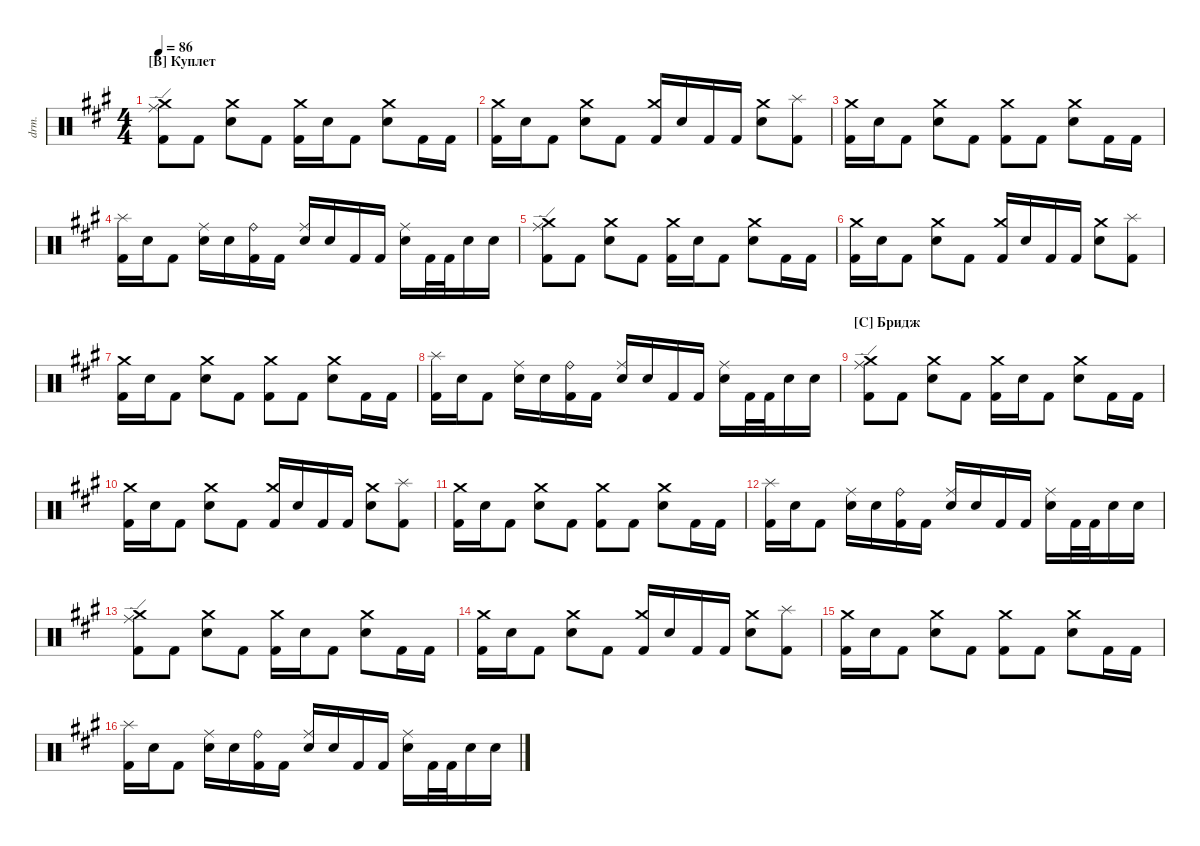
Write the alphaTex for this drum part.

\defaultSystemsLayout 4
\hideDynamics
\bracketExtendMode nobrackets
\track ("Drumkit" "drm.") {instrument percussion}
\staff {score}
\articulation defaults
\ts (4 4)
\section ("B" "Куплет")
\tempo 86
\clef neutral
\ks f#minor
("Kick (hit) 2"{acc forcenatural} "Crash medium (hit)"{acc forcenatural} "Ride (edge)"{acc forcenatural}).8{dy mf beam Down} "Kick (hit) 2"{acc forcenatural}.8{beam Down} ("Snare (hit) 2"{acc forcenatural} "Crash medium (hit)"{acc forcenatural}).8{beam Down} "Kick (hit) 2"{acc forcenatural}.8{beam Down} ("Kick (hit) 2"{acc forcenatural} "Crash medium (hit)"{acc forcenatural}).16{beam Down} "Snare (hit) 2"{acc forcenatural}.16{beam Down} "Kick (hit) 2"{acc forcenatural}.8{beam Down} ("Snare (hit) 2"{acc forcenatural} "Crash medium (hit)"{acc forcenatural}).8{beam Down} "Kick (hit) 2"{acc forcenatural}.16{beam Down} "Kick (hit) 2"{acc forcenatural}.16{beam Down} |
("Kick (hit) 2"{acc forcenatural} "Crash medium (hit)"{acc forcenatural}).16{beam Down} "Snare (hit) 2"{acc forcenatural}.16{beam Down} "Kick (hit) 2"{acc forcenatural}.8{beam Down} ("Snare (hit) 2"{acc forcenatural} "Crash medium (hit)"{acc forcenatural}).8{beam Down} "Kick (hit) 2"{acc forcenatural}.8{beam Down} ("Kick (hit) 2"{acc forcenatural} "Crash medium (hit)"{acc forcenatural}).16{beam Up} "Snare (hit) 2"{acc forcenatural}.16{beam Up} "Kick (hit) 2"{acc forcenatural}.16{beam Up} "Kick (hit) 2"{acc forcenatural}.16{beam Up} ("Snare (hit) 2"{acc forcenatural} "Crash medium (hit)"{acc forcenatural}).8{beam Down} ("Kick (hit) 2"{acc forcenatural} "Splash (hit)"{acc forcenatural}).8{beam Down} |
("Kick (hit) 2"{acc forcenatural} "Crash medium (hit)"{acc forcenatural}).16{beam Down} "Snare (hit) 2"{acc forcenatural}.16{beam Down} "Kick (hit) 2"{acc forcenatural}.8{beam Down} ("Snare (hit) 2"{acc forcenatural} "Crash medium (hit)"{acc forcenatural}).8{beam Down} "Kick (hit) 2"{acc forcenatural}.8{beam Down} ("Kick (hit) 2"{acc forcenatural} "Crash medium (hit)"{acc forcenatural}).8{beam Down} "Kick (hit) 2"{acc forcenatural}.8{beam Down} ("Snare (hit) 2"{acc forcenatural} "Crash medium (hit)"{acc forcenatural}).8{beam Down} "Kick (hit) 2"{acc forcenatural}.16{beam Down} "Kick (hit) 2"{acc forcenatural}.16{beam Down} |
("Kick (hit) 2"{acc forcenatural} "Splash (hit)"{acc forcenatural}).16{beam Down} "Snare (hit) 2"{acc forcenatural}.16{beam Down} "Kick (hit) 2"{acc forcenatural}.8{beam Down} ("Snare (hit) 2"{acc forcenatural} "Ride (middle)"{acc forcenatural}).16{beam Down} "Snare (hit) 2"{acc forcenatural}.16{beam Down} ("Kick (hit) 2"{acc forcenatural} "Ride (bell)"{acc forcenatural}).16{beam Down} "Kick (hit) 2"{acc forcenatural}.16{beam Down} ("Snare (hit) 2"{acc forcenatural} "Ride (middle)"{acc forcenatural}).16{beam Up} "Snare (hit) 2"{acc forcenatural}.16{beam Up} "Kick (hit) 2"{acc forcenatural}.16{beam Up} "Kick (hit) 2"{acc forcenatural}.16{beam Up} ("Snare (hit) 2"{acc forcenatural} "Ride (middle)"{acc forcenatural}).16{beam Down} "Kick (hit) 2"{acc forcenatural}.32{beam Down} "Kick (hit) 2"{acc forcenatural}.32{beam Down} "Snare (hit) 2"{acc forcenatural}.16{beam Down} "Snare (hit) 2"{acc forcenatural}.16{beam Down} |
("Kick (hit) 2"{acc forcenatural} "Crash medium (hit)"{acc forcenatural} "Ride (edge)"{acc forcenatural}).8{beam Down} "Kick (hit) 2"{acc forcenatural}.8{beam Down} ("Snare (hit) 2"{acc forcenatural} "Crash medium (hit)"{acc forcenatural}).8{beam Down} "Kick (hit) 2"{acc forcenatural}.8{beam Down} ("Kick (hit) 2"{acc forcenatural} "Crash medium (hit)"{acc forcenatural}).16{beam Down} "Snare (hit) 2"{acc forcenatural}.16{beam Down} "Kick (hit) 2"{acc forcenatural}.8{beam Down} ("Snare (hit) 2"{acc forcenatural} "Crash medium (hit)"{acc forcenatural}).8{beam Down} "Kick (hit) 2"{acc forcenatural}.16{beam Down} "Kick (hit) 2"{acc forcenatural}.16{beam Down} |
("Kick (hit) 2"{acc forcenatural} "Crash medium (hit)"{acc forcenatural}).16{beam Down} "Snare (hit) 2"{acc forcenatural}.16{beam Down} "Kick (hit) 2"{acc forcenatural}.8{beam Down} ("Snare (hit) 2"{acc forcenatural} "Crash medium (hit)"{acc forcenatural}).8{beam Down} "Kick (hit) 2"{acc forcenatural}.8{beam Down} ("Kick (hit) 2"{acc forcenatural} "Crash medium (hit)"{acc forcenatural}).16{beam Up} "Snare (hit) 2"{acc forcenatural}.16{beam Up} "Kick (hit) 2"{acc forcenatural}.16{beam Up} "Kick (hit) 2"{acc forcenatural}.16{beam Up} ("Snare (hit) 2"{acc forcenatural} "Crash medium (hit)"{acc forcenatural}).8{beam Down} ("Kick (hit) 2"{acc forcenatural} "Splash (hit)"{acc forcenatural}).8{beam Down} |
("Kick (hit) 2"{acc forcenatural} "Crash medium (hit)"{acc forcenatural}).16{beam Down} "Snare (hit) 2"{acc forcenatural}.16{beam Down} "Kick (hit) 2"{acc forcenatural}.8{beam Down} ("Snare (hit) 2"{acc forcenatural} "Crash medium (hit)"{acc forcenatural}).8{beam Down} "Kick (hit) 2"{acc forcenatural}.8{beam Down} ("Kick (hit) 2"{acc forcenatural} "Crash medium (hit)"{acc forcenatural}).8{beam Down} "Kick (hit) 2"{acc forcenatural}.8{beam Down} ("Snare (hit) 2"{acc forcenatural} "Crash medium (hit)"{acc forcenatural}).8{beam Down} "Kick (hit) 2"{acc forcenatural}.16{beam Down} "Kick (hit) 2"{acc forcenatural}.16{beam Down} |
("Kick (hit) 2"{acc forcenatural} "Splash (hit)"{acc forcenatural}).16{beam Down} "Snare (hit) 2"{acc forcenatural}.16{beam Down} "Kick (hit) 2"{acc forcenatural}.8{beam Down} ("Snare (hit) 2"{acc forcenatural} "Ride (middle)"{acc forcenatural}).16{beam Down} "Snare (hit) 2"{acc forcenatural}.16{beam Down} ("Kick (hit) 2"{acc forcenatural} "Ride (bell)"{acc forcenatural}).16{beam Down} "Kick (hit) 2"{acc forcenatural}.16{beam Down} ("Snare (hit) 2"{acc forcenatural} "Ride (middle)"{acc forcenatural}).16{beam Up} "Snare (hit) 2"{acc forcenatural}.16{beam Up} "Kick (hit) 2"{acc forcenatural}.16{beam Up} "Kick (hit) 2"{acc forcenatural}.16{beam Up} ("Snare (hit) 2"{acc forcenatural} "Ride (middle)"{acc forcenatural}).16{beam Down} "Kick (hit) 2"{acc forcenatural}.32{beam Down} "Kick (hit) 2"{acc forcenatural}.32{beam Down} "Snare (hit) 2"{acc forcenatural}.16{beam Down} "Snare (hit) 2"{acc forcenatural}.16{beam Down} |
\section ("C" "Бридж")
("Kick (hit) 2"{acc forcenatural} "Crash medium (hit)"{acc forcenatural} "Ride (edge)"{acc forcenatural}).8{beam Down} "Kick (hit) 2"{acc forcenatural}.8{beam Down} ("Snare (hit) 2"{acc forcenatural} "Crash medium (hit)"{acc forcenatural}).8{beam Down} "Kick (hit) 2"{acc forcenatural}.8{beam Down} ("Kick (hit) 2"{acc forcenatural} "Crash medium (hit)"{acc forcenatural}).16{beam Down} "Snare (hit) 2"{acc forcenatural}.16{beam Down} "Kick (hit) 2"{acc forcenatural}.8{beam Down} ("Snare (hit) 2"{acc forcenatural} "Crash medium (hit)"{acc forcenatural}).8{beam Down} "Kick (hit) 2"{acc forcenatural}.16{beam Down} "Kick (hit) 2"{acc forcenatural}.16{beam Down} |
("Kick (hit) 2"{acc forcenatural} "Crash medium (hit)"{acc forcenatural}).16{beam Down} "Snare (hit) 2"{acc forcenatural}.16{beam Down} "Kick (hit) 2"{acc forcenatural}.8{beam Down} ("Snare (hit) 2"{acc forcenatural} "Crash medium (hit)"{acc forcenatural}).8{beam Down} "Kick (hit) 2"{acc forcenatural}.8{beam Down} ("Kick (hit) 2"{acc forcenatural} "Crash medium (hit)"{acc forcenatural}).16{beam Up} "Snare (hit) 2"{acc forcenatural}.16{beam Up} "Kick (hit) 2"{acc forcenatural}.16{beam Up} "Kick (hit) 2"{acc forcenatural}.16{beam Up} ("Snare (hit) 2"{acc forcenatural} "Crash medium (hit)"{acc forcenatural}).8{beam Down} ("Kick (hit) 2"{acc forcenatural} "Splash (hit)"{acc forcenatural}).8{beam Down} |
("Kick (hit) 2"{acc forcenatural} "Crash medium (hit)"{acc forcenatural}).16{beam Down} "Snare (hit) 2"{acc forcenatural}.16{beam Down} "Kick (hit) 2"{acc forcenatural}.8{beam Down} ("Snare (hit) 2"{acc forcenatural} "Crash medium (hit)"{acc forcenatural}).8{beam Down} "Kick (hit) 2"{acc forcenatural}.8{beam Down} ("Kick (hit) 2"{acc forcenatural} "Crash medium (hit)"{acc forcenatural}).8{beam Down} "Kick (hit) 2"{acc forcenatural}.8{beam Down} ("Snare (hit) 2"{acc forcenatural} "Crash medium (hit)"{acc forcenatural}).8{beam Down} "Kick (hit) 2"{acc forcenatural}.16{beam Down} "Kick (hit) 2"{acc forcenatural}.16{beam Down} |
("Kick (hit) 2"{acc forcenatural} "Splash (hit)"{acc forcenatural}).16{beam Down} "Snare (hit) 2"{acc forcenatural}.16{beam Down} "Kick (hit) 2"{acc forcenatural}.8{beam Down} ("Snare (hit) 2"{acc forcenatural} "Ride (middle)"{acc forcenatural}).16{beam Down} "Snare (hit) 2"{acc forcenatural}.16{beam Down} ("Kick (hit) 2"{acc forcenatural} "Ride (bell)"{acc forcenatural}).16{beam Down} "Kick (hit) 2"{acc forcenatural}.16{beam Down} ("Snare (hit) 2"{acc forcenatural} "Ride (middle)"{acc forcenatural}).16{beam Up} "Snare (hit) 2"{acc forcenatural}.16{beam Up} "Kick (hit) 2"{acc forcenatural}.16{beam Up} "Kick (hit) 2"{acc forcenatural}.16{beam Up} ("Snare (hit) 2"{acc forcenatural} "Ride (middle)"{acc forcenatural}).16{beam Down} "Kick (hit) 2"{acc forcenatural}.32{beam Down} "Kick (hit) 2"{acc forcenatural}.32{beam Down} "Snare (hit) 2"{acc forcenatural}.16{beam Down} "Snare (hit) 2"{acc forcenatural}.16{beam Down} |
("Kick (hit) 2"{acc forcenatural} "Crash medium (hit)"{acc forcenatural} "Ride (edge)"{acc forcenatural}).8{beam Down} "Kick (hit) 2"{acc forcenatural}.8{beam Down} ("Snare (hit) 2"{acc forcenatural} "Crash medium (hit)"{acc forcenatural}).8{beam Down} "Kick (hit) 2"{acc forcenatural}.8{beam Down} ("Kick (hit) 2"{acc forcenatural} "Crash medium (hit)"{acc forcenatural}).16{beam Down} "Snare (hit) 2"{acc forcenatural}.16{beam Down} "Kick (hit) 2"{acc forcenatural}.8{beam Down} ("Snare (hit) 2"{acc forcenatural} "Crash medium (hit)"{acc forcenatural}).8{beam Down} "Kick (hit) 2"{acc forcenatural}.16{beam Down} "Kick (hit) 2"{acc forcenatural}.16{beam Down} |
("Kick (hit) 2"{acc forcenatural} "Crash medium (hit)"{acc forcenatural}).16{beam Down} "Snare (hit) 2"{acc forcenatural}.16{beam Down} "Kick (hit) 2"{acc forcenatural}.8{beam Down} ("Snare (hit) 2"{acc forcenatural} "Crash medium (hit)"{acc forcenatural}).8{beam Down} "Kick (hit) 2"{acc forcenatural}.8{beam Down} ("Kick (hit) 2"{acc forcenatural} "Crash medium (hit)"{acc forcenatural}).16{beam Up} "Snare (hit) 2"{acc forcenatural}.16{beam Up} "Kick (hit) 2"{acc forcenatural}.16{beam Up} "Kick (hit) 2"{acc forcenatural}.16{beam Up} ("Snare (hit) 2"{acc forcenatural} "Crash medium (hit)"{acc forcenatural}).8{beam Down} ("Kick (hit) 2"{acc forcenatural} "Splash (hit)"{acc forcenatural}).8{beam Down} |
("Kick (hit) 2"{acc forcenatural} "Crash medium (hit)"{acc forcenatural}).16{beam Down} "Snare (hit) 2"{acc forcenatural}.16{beam Down} "Kick (hit) 2"{acc forcenatural}.8{beam Down} ("Snare (hit) 2"{acc forcenatural} "Crash medium (hit)"{acc forcenatural}).8{beam Down} "Kick (hit) 2"{acc forcenatural}.8{beam Down} ("Kick (hit) 2"{acc forcenatural} "Crash medium (hit)"{acc forcenatural}).8{beam Down} "Kick (hit) 2"{acc forcenatural}.8{beam Down} ("Snare (hit) 2"{acc forcenatural} "Crash medium (hit)"{acc forcenatural}).8{beam Down} "Kick (hit) 2"{acc forcenatural}.16{beam Down} "Kick (hit) 2"{acc forcenatural}.16{beam Down} |
("Kick (hit) 2"{acc forcenatural} "Splash (hit)"{acc forcenatural}).16{beam Down} "Snare (hit) 2"{acc forcenatural}.16{beam Down} "Kick (hit) 2"{acc forcenatural}.8{beam Down} ("Snare (hit) 2"{acc forcenatural} "Ride (middle)"{acc forcenatural}).16{beam Down} "Snare (hit) 2"{acc forcenatural}.16{beam Down} ("Kick (hit) 2"{acc forcenatural} "Ride (bell)"{acc forcenatural}).16{beam Down} "Kick (hit) 2"{acc forcenatural}.16{beam Down} ("Snare (hit) 2"{acc forcenatural} "Ride (middle)"{acc forcenatural}).16{beam Up} "Snare (hit) 2"{acc forcenatural}.16{beam Up} "Kick (hit) 2"{acc forcenatural}.16{beam Up} "Kick (hit) 2"{acc forcenatural}.16{beam Up} ("Snare (hit) 2"{acc forcenatural} "Ride (middle)"{acc forcenatural}).16{beam Down} "Kick (hit) 2"{acc forcenatural}.32{beam Down} "Kick (hit) 2"{acc forcenatural}.32{beam Down} "Snare (hit) 2"{acc forcenatural}.16{beam Down} "Snare (hit) 2"{acc forcenatural}.16{beam Down}
